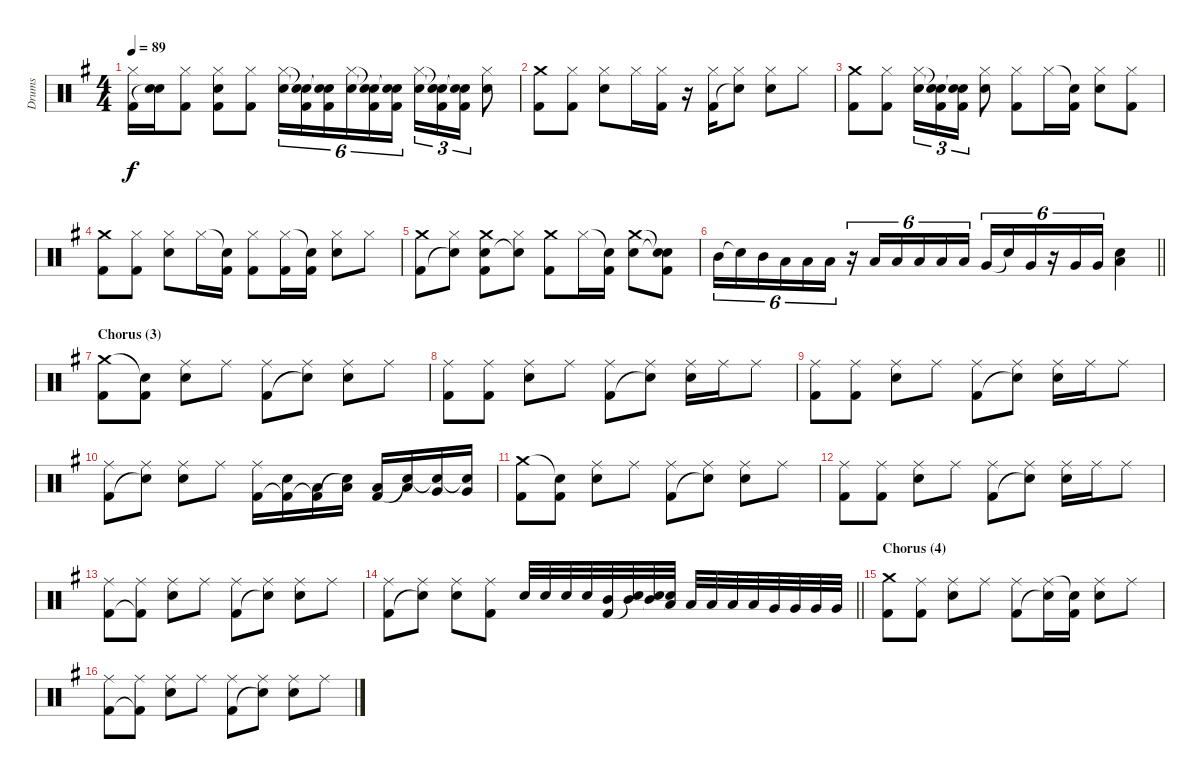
\track ("Drums" "Drums") {instrument percussion}
\staff {score}
\articulation defaults
\ts (4 4)
\tempo 89
\clef neutral
\ks g
("Hi-Hat (closed)" "Kick (hit) 2").16{dy f} ("Electric Snare (hit)" "Snare (hit)"{t}).16 ("Hi-Hat (closed)" "Kick (hit) 2").8 ("Hi-Hat (closed)" "Electric Snare (hit)" "Kick (hit) 2").8 ("Hi-Hat (closed)" "Kick (hit) 2").8 ("Hi-Hat (closed)" "Electric Snare (hit)").16{tu (6 4)} ("Snare (hit)"{t} "Snare (hit)"{t} "Kick (hit) 2").16{tu (6 4)} ("Snare (hit)"{t} "Snare (hit)"{t} "Kick (hit) 2").16{tu (6 4)} ("Hi-Hat (closed)" "Electric Snare (hit)").16{tu (6 4)} ("Snare (hit)"{t} "Snare (hit)"{t} "Kick (hit) 2").16{tu (6 4)} ("Snare (hit)"{t} "Snare (hit)"{t} "Kick (hit) 2").16{tu (6 4)} ("Hi-Hat (closed)" "Electric Snare (hit)").16{tu (3 2)} ("Snare (hit)"{t} "Snare (hit)"{t} "Kick (hit) 2").16{tu (3 2)} ("Snare (hit)"{t} "Snare (hit)"{t} "Kick (hit) 2").16{tu (3 2)} ("Hi-Hat (closed)" "Electric Snare (hit)").8 |
("Crash medium (hit)" "Kick (hit) 2").8 ("Hi-Hat (closed)" "Kick (hit) 2").8 ("Hi-Hat (closed)" "Electric Snare (hit)").8 "Hi-Hat (closed)".16 ("Hi-Hat (closed)" "Kick (hit) 2").16 r.16 ("Hi-Hat (closed)" "Kick (hit) 2").16 ("Hi-Hat (closed)" "Snare (hit)"{t}).8 ("Hi-Hat (closed)" "Electric Snare (hit)").8 "Hi-Hat (closed)".8 |
("Crash medium (hit)" "Kick (hit) 2").8 ("Hi-Hat (closed)" "Kick (hit) 2").8 ("Hi-Hat (closed)" "Electric Snare (hit)").16{tu (3 2)} ("Snare (hit)"{t} "Snare (hit)"{t} "Kick (hit) 2").16{tu (3 2)} ("Snare (hit)"{t} "Snare (hit)"{t} "Kick (hit) 2").16{tu (3 2)} ("Hi-Hat (closed)" "Electric Snare (hit)").8 ("Hi-Hat (closed)" "Kick (hit) 2").8 "Hi-Hat (closed)".16 ("Snare (hit)"{t} "Kick (hit) 2").16 ("Hi-Hat (closed)" "Electric Snare (hit)").8 ("Hi-Hat (closed)" "Kick (hit) 2").8 |
("Crash medium (hit)" "Kick (hit) 2").8 ("Hi-Hat (closed)" "Kick (hit) 2").8 ("Hi-Hat (closed)" "Electric Snare (hit)").8 "Hi-Hat (closed)".16 ("Snare (hit)"{t} "Kick (hit) 2").16 ("Hi-Hat (closed)" "Kick (hit) 2").8 ("Hi-Hat (closed)" "Kick (hit) 2").16 ("Snare (hit)"{t} "Kick (hit) 2").16 ("Hi-Hat (closed)" "Electric Snare (hit)").8 "Hi-Hat (closed)".8 |
("Crash medium (hit)" "Kick (hit) 2").8 ("Hi-Hat (closed)" "Snare (hit)"{t}).8 ("Crash medium (hit)" "Electric Snare (hit)" "Kick (hit) 2").8 ("Hi-Hat (closed)" "Snare (hit)"{t}).8 ("Crash medium (hit)" "Kick (hit) 2").8 "Hi-Hat (closed)".16 ("Snare (hit)"{t} "Kick (hit) 2").16 ("Crash medium (hit)" "Electric Snare (hit)").8 ("Snare (hit)"{t} "Snare (hit)"{t} "Kick (hit) 2").8 |
\barLineRight lightlight "Mid Tom (hit)".16{tu (6 4)} "Snare (hit)"{t}.16{tu (6 4)} "Mid Tom (hit)".16{tu (6 4)} "Low Tom (hit)".16{tu (6 4)} "Low Tom (hit)".16{tu (6 4)} "Low Tom (hit)".16{tu (6 4)}
r.16{tu (6 4)} "Low Tom (hit)".16{tu (6 4)} "Low Tom (hit)".16{tu (6 4)} "Low Tom (hit)".16{tu (6 4)} "Low Tom (hit)".16{tu (6 4)} "Low Tom (hit)".16{tu (6 4)} "Very Low Tom (hit)".16{tu (6 4)} "Snare (hit)"{t}.16{tu (6 4)} "Very Low Tom (hit)".16{tu (6 4)} r.16{tu (6 4)} "Very Low Tom (hit)".16{tu (6 4)} "Very Low Tom (hit)".16{tu (6 4)} ("Electric Snare (hit)" "Low Floor Tom (hit)").4 |
\section ("" "Chorus (3)")
("Crash medium (hit)" "Kick (hit) 2").8 ("Snare (hit)"{t} "Kick (hit) 2").8 ("Ride (middle)" "Electric Snare (hit)").8 "Ride (middle)".8 ("Ride (middle)" "Kick (hit) 2").8 ("Ride (middle)" "Snare (hit)"{t}).8 ("Ride (middle)" "Electric Snare (hit)").8 "Ride (middle)".8 |
("Ride (middle)" "Kick (hit) 2").8 ("Ride (middle)" "Kick (hit) 2").8 ("Ride (middle)" "Electric Snare (hit)").8 "Ride (middle)".8 ("Ride (middle)" "Kick (hit) 2").8 ("Ride (middle)" "Snare (hit)"{t}).8 ("Ride (middle)" "Electric Snare (hit)").16 "Ride (middle)".16 "Ride (middle)".8 |
("Ride (middle)" "Kick (hit) 2").8 ("Ride (middle)" "Kick (hit) 2").8 ("Ride (middle)" "Electric Snare (hit)").8 "Ride (middle)".8 ("Ride (middle)" "Kick (hit) 2").8 ("Ride (middle)" "Snare (hit)"{t}).8 ("Ride (middle)" "Electric Snare (hit)").16 "Ride (middle)".16 "Ride (middle)".8 |
("Ride (middle)" "Kick (hit) 2").8 ("Ride (middle)" "Snare (hit)"{t}).8 ("Ride (middle)" "Electric Snare (hit)").8 "Ride (middle)".8 ("Ride (middle)" "Kick (hit) 2").16 ("Electric Snare (hit)" "Kick (hit) 2"{t}).16 ("Low Tom (hit)" "Kick (hit) 2"{t}).16 ("Low Tom (hit)" "Snare (hit)"{t}).16 ("Low Tom (hit)" "Kick (hit) 2").16 ("Low Tom (hit)" "Snare (hit)"{t}).16 ("Very Low Tom (hit)" "Snare (hit)"{t}).16 ("Very Low Tom (hit)" "Snare (hit)"{t}).16 |
("Crash medium (hit)" "Kick (hit) 2").8 ("Snare (hit)"{t} "Kick (hit) 2").8 ("Ride (middle)" "Electric Snare (hit)").8 "Ride (middle)".8 ("Ride (middle)" "Kick (hit) 2").8 ("Ride (middle)" "Snare (hit)"{t}).8 ("Ride (middle)" "Electric Snare (hit)").8 "Ride (middle)".8 |
("Ride (middle)" "Kick (hit) 2").8 ("Ride (middle)" "Kick (hit) 2").8 ("Ride (middle)" "Electric Snare (hit)").8 "Ride (middle)".8 ("Ride (middle)" "Kick (hit) 2").8 ("Ride (middle)" "Snare (hit)"{t}).8 ("Ride (middle)" "Electric Snare (hit)").16 "Ride (middle)".16 "Ride (middle)".8 |
("Ride (middle)" "Kick (hit) 2").8 ("Ride (middle)" "Kick (hit) 2"{t}).8 ("Ride (middle)" "Electric Snare (hit)").8 "Ride (middle)".8 ("Ride (middle)" "Kick (hit) 2").8 ("Ride (middle)" "Snare (hit)"{t}).8 ("Ride (middle)" "Electric Snare (hit)").8 "Ride (middle)".8 |
\barLineRight lightlight
("Ride (middle)" "Kick (hit) 2").8 ("Ride (middle)" "Snare (hit)"{t}).8 ("Ride (middle)" "Electric Snare (hit)").8 ("Ride (middle)" "Kick (hit) 2").8 "Electric Snare (hit)".32 "Electric Snare (hit)".32 "Electric Snare (hit)".32 "Electric Snare (hit)".32 ("Mid Tom (hit)" "Kick (hit) 2").32 ("Mid Tom (hit)" "Snare (hit)"{t}).32 ("Mid Tom (hit)" "Snare (hit)"{t}).32 ("Low Tom (hit)" "Snare (hit)"{t}).32 "Low Tom (hit)".32 "Low Tom (hit)".32 "Low Tom (hit)".32 "Low Tom (hit)".32 "Very Low Tom (hit)".32 "Very Low Tom (hit)".32 "Very Low Tom (hit)".32 "Very Low Tom (hit)".32 |
\section ("" "Chorus (4)")
("Crash medium (hit)" "Kick (hit) 2").8 ("Ride (middle)" "Kick (hit) 2").8 ("Ride (middle)" "Electric Snare (hit)").8 "Ride (middle)".8 ("Ride (middle)" "Kick (hit) 2").8 ("Ride (middle)" "Snare (hit)"{t}).16 ("Snare (hit)"{t} "Kick (hit) 2").16 ("Ride (middle)" "Electric Snare (hit)").8 "Ride (middle)".8 |
("Ride (middle)" "Kick (hit) 2").8 ("Ride (middle)" "Kick (hit) 2"{t}).8 ("Ride (middle)" "Electric Snare (hit)").8 "Ride (middle)".8 ("Ride (middle)" "Kick (hit) 2").8 ("Ride (middle)" "Snare (hit)"{t}).8 ("Ride (middle)" "Electric Snare (hit)").8 "Ride (middle)".8
